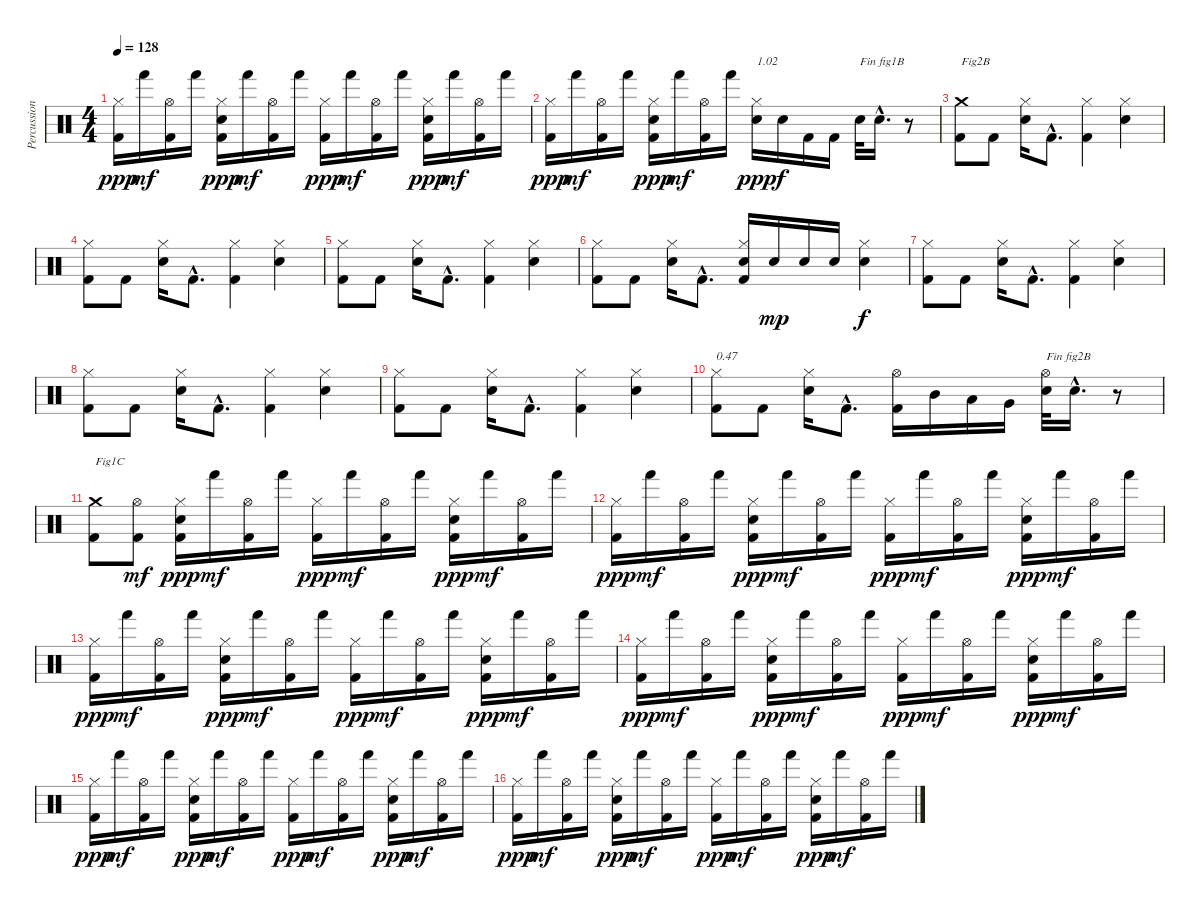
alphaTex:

\track ("Percussions" "Percussion") {instrument percussion}
\staff {score}
\articulation defaults
\ts (4 4)
\tempo 128
\clef neutral
\ks c
("Kick (hit) 2" "Hi-Hat (closed)").16{dy ppp} "Hand (hit)".16{dy mf} ("Kick (hit) 2" "Hi-Hat (open)").16 "Hand (hit)".16 ("Kick (hit) 2" "Electric Snare (hit)" "Hi-Hat (closed)").16{dy ppp} "Hand (hit)".16{dy mf} ("Kick (hit) 2" "Hi-Hat (open)").16 "Hand (hit)".16 ("Kick (hit) 2" "Hi-Hat (closed)").16{dy ppp} "Hand (hit)".16{dy mf} ("Kick (hit) 2" "Hi-Hat (open)").16 "Hand (hit)".16 ("Kick (hit) 2" "Electric Snare (hit)" "Hi-Hat (closed)").16{dy ppp} "Hand (hit)".16{dy mf} ("Kick (hit) 2" "Hi-Hat (open)").16 "Hand (hit)".16 |
("Kick (hit) 2" "Hi-Hat (closed)").16{dy ppp} "Hand (hit)".16{dy mf} ("Kick (hit) 2" "Hi-Hat (open)").16 "Hand (hit)".16 ("Kick (hit) 2" "Electric Snare (hit)" "Hi-Hat (closed)").16{dy ppp} "Hand (hit)".16{dy mf} ("Kick (hit) 2" "Hi-Hat (open)").16 "Hand (hit)".16 ("Electric Snare (hit)" "Hi-Hat (closed)").16{txt "1.02" dy ppp} "Electric Snare (hit)".16{dy f} "Kick (hit) 2".16 "Kick (hit) 2".16 "Electric Snare (hit)".32{txt "Fin fig1B"} "Electric Snare (hit)"{hac}.16{d} r.8 |
("Kick (hit) 2" "Crash medium (hit)").8{txt "Fig2B"} "Kick (hit) 2".8 ("Electric Snare (hit)" "Hi-Hat (closed)").16 "Kick (hit) 2"{hac}.8{d} ("Kick (hit) 2" "Hi-Hat (closed)").4 ("Electric Snare (hit)" "Hi-Hat (closed)").4 |
("Kick (hit) 2" "Hi-Hat (closed)").8 "Kick (hit) 2".8 ("Electric Snare (hit)" "Hi-Hat (closed)").16 "Kick (hit) 2"{hac}.8{d} ("Kick (hit) 2" "Hi-Hat (closed)").4 ("Electric Snare (hit)" "Hi-Hat (closed)").4 |
("Kick (hit) 2" "Hi-Hat (closed)").8 "Kick (hit) 2".8 ("Electric Snare (hit)" "Hi-Hat (closed)").16 "Kick (hit) 2"{hac}.8{d} ("Kick (hit) 2" "Hi-Hat (closed)").4 ("Electric Snare (hit)" "Hi-Hat (closed)").4 |
("Kick (hit) 2" "Hi-Hat (closed)").8 "Kick (hit) 2".8 ("Electric Snare (hit)" "Hi-Hat (closed)").16 "Kick (hit) 2"{hac}.8{d} ("Kick (hit) 2" "Electric Snare (hit)" "Hi-Hat (closed)").16 "Electric Snare (hit)".16{dy mp} "Electric Snare (hit)".16 "Electric Snare (hit)".16 ("Electric Snare (hit)" "Hi-Hat (closed)").4{dy f} |
("Kick (hit) 2" "Hi-Hat (closed)").8 "Kick (hit) 2".8 ("Electric Snare (hit)" "Hi-Hat (closed)").16 "Kick (hit) 2"{hac}.8{d} ("Kick (hit) 2" "Hi-Hat (closed)").4 ("Electric Snare (hit)" "Hi-Hat (closed)").4 |
("Kick (hit) 2" "Hi-Hat (closed)").8 "Kick (hit) 2".8 ("Electric Snare (hit)" "Hi-Hat (closed)").16 "Kick (hit) 2"{hac}.8{d} ("Kick (hit) 2" "Hi-Hat (closed)").4 ("Electric Snare (hit)" "Hi-Hat (closed)").4 |
("Kick (hit) 2" "Hi-Hat (closed)").8 "Kick (hit) 2".8 ("Electric Snare (hit)" "Hi-Hat (closed)").16 "Kick (hit) 2"{hac}.8{d} ("Kick (hit) 2" "Hi-Hat (closed)").4 ("Electric Snare (hit)" "Hi-Hat (closed)").4 |
("Kick (hit) 2" "Hi-Hat (closed)").8{txt "0.47"} "Kick (hit) 2".8 ("Electric Snare (hit)" "Hi-Hat (closed)").16 "Kick (hit) 2"{hac}.8{d} ("Kick (hit) 2" "Hi-Hat (open)").16 "Mid Tom (hit)".16 "Low Tom (hit)".16 "Very Low Tom (hit)".16 ("Electric Snare (hit)" "Hi-Hat (open)").32{txt "Fin fig2B"} "Electric Snare (hit)"{hac}.16{d} r.8 |
("Kick (hit) 2" "Crash medium (hit)").8{txt "Fig1C"} ("Kick (hit) 2" "Hi-Hat (open)").8{dy mf} ("Kick (hit) 2" "Electric Snare (hit)" "Hi-Hat (closed)").16{dy ppp} "Hand (hit)".16{dy mf} ("Kick (hit) 2" "Hi-Hat (open)").16 "Hand (hit)".16 ("Kick (hit) 2" "Hi-Hat (closed)").16{dy ppp} "Hand (hit)".16{dy mf} ("Kick (hit) 2" "Hi-Hat (open)").16 "Hand (hit)".16 ("Kick (hit) 2" "Electric Snare (hit)" "Hi-Hat (closed)").16{dy ppp} "Hand (hit)".16{dy mf} ("Kick (hit) 2" "Hi-Hat (open)").16 "Hand (hit)".16 |
("Kick (hit) 2" "Hi-Hat (closed)").16{dy ppp} "Hand (hit)".16{dy mf} ("Kick (hit) 2" "Hi-Hat (open)").16 "Hand (hit)".16 ("Kick (hit) 2" "Electric Snare (hit)" "Hi-Hat (closed)").16{dy ppp} "Hand (hit)".16{dy mf} ("Kick (hit) 2" "Hi-Hat (open)").16 "Hand (hit)".16 ("Kick (hit) 2" "Hi-Hat (closed)").16{dy ppp} "Hand (hit)".16{dy mf} ("Kick (hit) 2" "Hi-Hat (open)").16 "Hand (hit)".16 ("Kick (hit) 2" "Electric Snare (hit)" "Hi-Hat (closed)").16{dy ppp} "Hand (hit)".16{dy mf} ("Kick (hit) 2" "Hi-Hat (open)").16 "Hand (hit)".16 |
("Kick (hit) 2" "Hi-Hat (closed)").16{dy ppp} "Hand (hit)".16{dy mf} ("Kick (hit) 2" "Hi-Hat (open)").16 "Hand (hit)".16 ("Kick (hit) 2" "Electric Snare (hit)" "Hi-Hat (closed)").16{dy ppp} "Hand (hit)".16{dy mf} ("Kick (hit) 2" "Hi-Hat (open)").16 "Hand (hit)".16 ("Kick (hit) 2" "Hi-Hat (closed)").16{dy ppp} "Hand (hit)".16{dy mf} ("Kick (hit) 2" "Hi-Hat (open)").16 "Hand (hit)".16 ("Kick (hit) 2" "Electric Snare (hit)" "Hi-Hat (closed)").16{dy ppp} "Hand (hit)".16{dy mf} ("Kick (hit) 2" "Hi-Hat (open)").16 "Hand (hit)".16 |
("Kick (hit) 2" "Hi-Hat (closed)").16{dy ppp} "Hand (hit)".16{dy mf} ("Kick (hit) 2" "Hi-Hat (open)").16 "Hand (hit)".16 ("Kick (hit) 2" "Electric Snare (hit)" "Hi-Hat (closed)").16{dy ppp} "Hand (hit)".16{dy mf} ("Kick (hit) 2" "Hi-Hat (open)").16 "Hand (hit)".16 ("Kick (hit) 2" "Hi-Hat (closed)").16{dy ppp} "Hand (hit)".16{dy mf} ("Kick (hit) 2" "Hi-Hat (open)").16 "Hand (hit)".16 ("Kick (hit) 2" "Electric Snare (hit)" "Hi-Hat (closed)").16{dy ppp} "Hand (hit)".16{dy mf} ("Kick (hit) 2" "Hi-Hat (open)").16 "Hand (hit)".16 |
("Kick (hit) 2" "Hi-Hat (closed)").16{dy ppp} "Hand (hit)".16{dy mf} ("Kick (hit) 2" "Hi-Hat (open)").16 "Hand (hit)".16 ("Kick (hit) 2" "Electric Snare (hit)" "Hi-Hat (closed)").16{dy ppp} "Hand (hit)".16{dy mf} ("Kick (hit) 2" "Hi-Hat (open)").16 "Hand (hit)".16 ("Kick (hit) 2" "Hi-Hat (closed)").16{dy ppp} "Hand (hit)".16{dy mf} ("Kick (hit) 2" "Hi-Hat (open)").16 "Hand (hit)".16 ("Kick (hit) 2" "Electric Snare (hit)" "Hi-Hat (closed)").16{dy ppp} "Hand (hit)".16{dy mf} ("Kick (hit) 2" "Hi-Hat (open)").16 "Hand (hit)".16 |
("Kick (hit) 2" "Hi-Hat (closed)").16{dy ppp} "Hand (hit)".16{dy mf} ("Kick (hit) 2" "Hi-Hat (open)").16 "Hand (hit)".16 ("Kick (hit) 2" "Electric Snare (hit)" "Hi-Hat (closed)").16{dy ppp} "Hand (hit)".16{dy mf} ("Kick (hit) 2" "Hi-Hat (open)").16 "Hand (hit)".16 ("Kick (hit) 2" "Hi-Hat (closed)").16{dy ppp} "Hand (hit)".16{dy mf} ("Kick (hit) 2" "Hi-Hat (open)").16 "Hand (hit)".16 ("Kick (hit) 2" "Electric Snare (hit)" "Hi-Hat (closed)").16{dy ppp} "Hand (hit)".16{dy mf} ("Kick (hit) 2" "Hi-Hat (open)").16 "Hand (hit)".16
